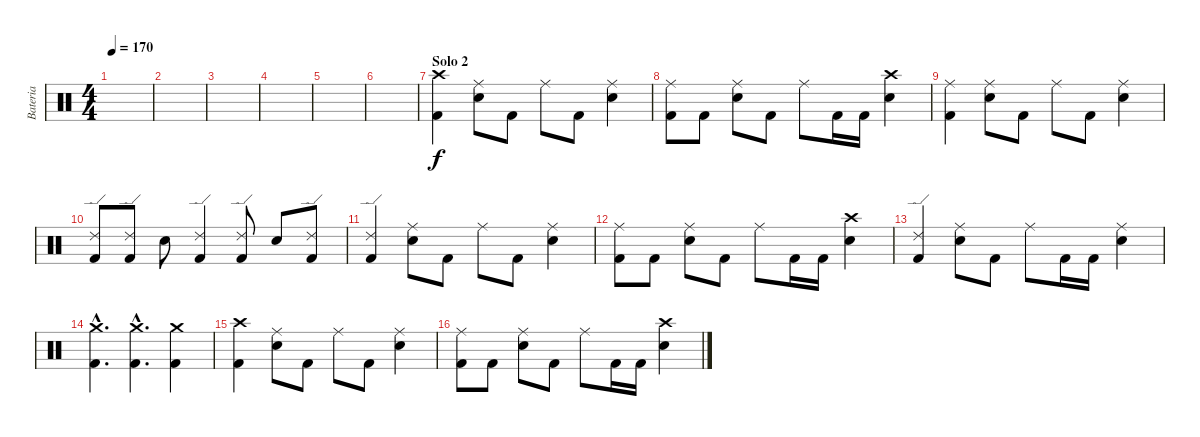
\track ("Bateria" "Bateria") {instrument percussion}
\staff {score}
\articulation defaults
\ts (4 4)
\tempo 170
\clef neutral
\ks c
|
|
|
|
|
|
\section ("" "Solo 2")
("Crash high (hit)" "Kick (hit) 2").4 ("Ride (middle)" "Snare (hit) 2").8 "Kick (hit) 2".8 "Ride (middle)".8 "Kick (hit) 2".8 ("Ride (middle)" "Snare (hit) 2").4 |
("Ride (middle)" "Kick (hit) 2").8 "Kick (hit) 2".8 ("Ride (middle)" "Snare (hit) 2").8 "Kick (hit) 2".8 "Ride (middle)".8 "Kick (hit) 2".16 "Kick (hit) 2".16 ("Crash high (hit)" "Snare (hit) 2").4 |
("Ride (middle)" "Kick (hit) 2").4 ("Ride (middle)" "Snare (hit) 2").8 "Kick (hit) 2".8 "Ride (middle)".8 "Kick (hit) 2".8 ("Ride (middle)" "Snare (hit) 2").4 |
("Ride (edge) 2" "Kick (hit) 2").8 ("Ride (edge) 2" "Kick (hit) 2").8 "Snare (hit) 2".8 ("Ride (edge) 2" "Kick (hit) 2").4 ("Ride (edge) 2" "Kick (hit) 2").8 "Snare (hit) 2".8 ("Ride (edge) 2" "Kick (hit) 2").8 |
("Ride (edge) 2" "Kick (hit) 2").4 ("Ride (middle)" "Snare (hit) 2").8 "Kick (hit) 2".8 "Ride (middle)".8 "Kick (hit) 2".8 ("Ride (middle)" "Snare (hit) 2").4 |
("Ride (middle)" "Kick (hit) 2").8 "Kick (hit) 2".8 ("Ride (middle)" "Snare (hit) 2").8 "Kick (hit) 2".8 "Ride (middle)".8 "Kick (hit) 2".16 "Kick (hit) 2".16 ("Crash high (hit)" "Snare (hit) 2").4 |
("Ride (edge) 2" "Kick (hit) 2").4 ("Ride (middle)" "Snare (hit) 2").8 "Kick (hit) 2".8 "Ride (middle)".8 "Kick (hit) 2".16 "Kick (hit) 2".16 ("Ride (middle)" "Snare (hit) 2").4 |
("Crash medium (hit)"{hac} "Kick (hit) 2"{hac}).4{d} ("Crash medium (hit)"{hac} "Kick (hit) 2"{hac}).4{d} ("Crash medium (hit)" "Kick (hit) 2").4 |
("Crash high (hit)" "Kick (hit) 2").4 ("Ride (middle)" "Snare (hit) 2").8 "Kick (hit) 2".8 "Ride (middle)".8 "Kick (hit) 2".8 ("Ride (middle)" "Snare (hit) 2").4 |
("Ride (middle)" "Kick (hit) 2").8 "Kick (hit) 2".8 ("Ride (middle)" "Snare (hit) 2").8 "Kick (hit) 2".8 "Ride (middle)".8 "Kick (hit) 2".16 "Kick (hit) 2".16 ("Crash high (hit)" "Snare (hit) 2").4
